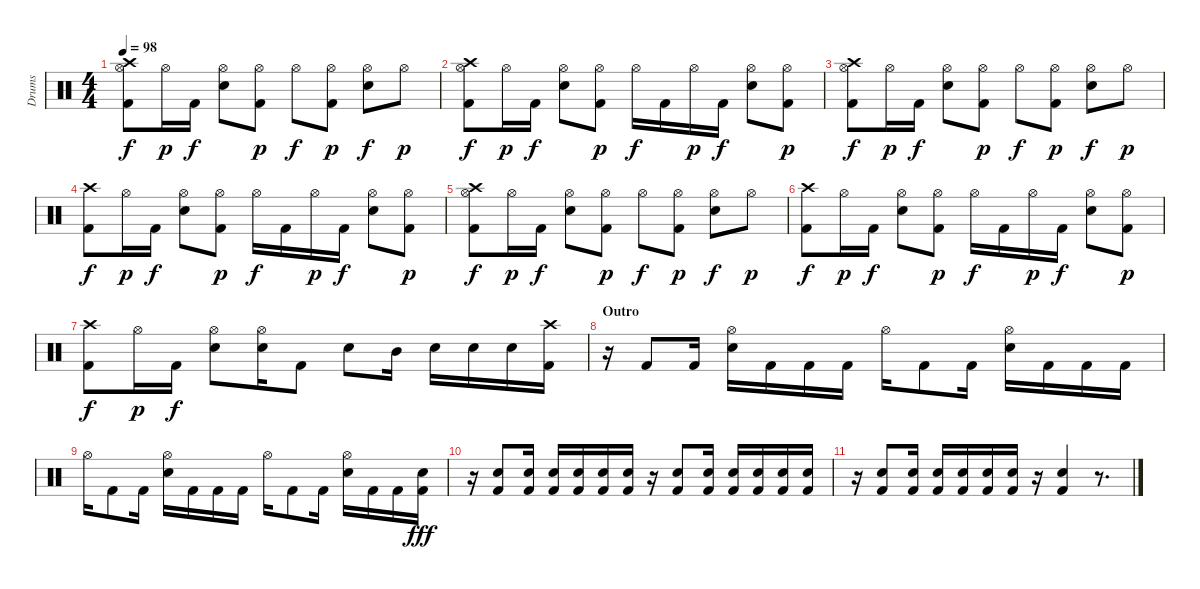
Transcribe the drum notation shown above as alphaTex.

\track ("Drums" "Drums") {instrument percussion}
\staff {score}
\articulation defaults
\ts (4 4)
\tempo 98
\clef neutral
\ks c
("Crash high (hit)" "Hi-Hat (open)" "Kick (hit) 2").8{dy f} "Hi-Hat (open)".16{dy p} "Kick (hit) 2".16{dy f} ("Hi-Hat (open)" "Electric Snare (hit)").8 ("Hi-Hat (open)" "Kick (hit) 2").8{dy p} "Hi-Hat (open)".8{dy f} ("Hi-Hat (open)" "Kick (hit) 2").8{dy p} ("Hi-Hat (open)" "Electric Snare (hit)").8{dy f} "Hi-Hat (open)".8{dy p} |
("Crash high (hit)" "Hi-Hat (open)" "Kick (hit) 2").8{dy f} "Hi-Hat (open)".16{dy p} "Kick (hit) 2".16{dy f} ("Hi-Hat (open)" "Electric Snare (hit)").8 ("Hi-Hat (open)" "Kick (hit) 2").8{dy p} "Hi-Hat (open)".16{dy f} "Kick (hit) 2".16 "Hi-Hat (open)".16{dy p} "Kick (hit) 2".16{dy f} ("Hi-Hat (open)" "Electric Snare (hit)").8 ("Hi-Hat (open)" "Kick (hit) 2").8{dy p} |
("Crash high (hit)" "Hi-Hat (open)" "Kick (hit) 2").8{dy f} "Hi-Hat (open)".16{dy p} "Kick (hit) 2".16{dy f} ("Hi-Hat (open)" "Electric Snare (hit)").8 ("Hi-Hat (open)" "Kick (hit) 2").8{dy p} "Hi-Hat (open)".8{dy f} ("Hi-Hat (open)" "Kick (hit) 2").8{dy p} ("Hi-Hat (open)" "Electric Snare (hit)").8{dy f} "Hi-Hat (open)".8{dy p} |
("Crash high (hit)" "Kick (hit) 2").8{dy f} "Hi-Hat (open)".16{dy p} "Kick (hit) 2".16{dy f} ("Hi-Hat (open)" "Electric Snare (hit)").8 ("Hi-Hat (open)" "Kick (hit) 2").8{dy p} "Hi-Hat (open)".16{dy f} "Kick (hit) 2".16 "Hi-Hat (open)".16{dy p} "Kick (hit) 2".16{dy f} ("Hi-Hat (open)" "Electric Snare (hit)").8 ("Hi-Hat (open)" "Kick (hit) 2").8{dy p} |
("Crash high (hit)" "Hi-Hat (open)" "Kick (hit) 2").8{dy f} "Hi-Hat (open)".16{dy p} "Kick (hit) 2".16{dy f} ("Hi-Hat (open)" "Electric Snare (hit)").8 ("Hi-Hat (open)" "Kick (hit) 2").8{dy p} "Hi-Hat (open)".8{dy f} ("Hi-Hat (open)" "Kick (hit) 2").8{dy p} ("Hi-Hat (open)" "Electric Snare (hit)").8{dy f} "Hi-Hat (open)".8{dy p} |
("Crash high (hit)" "Kick (hit) 2").8{dy f} "Hi-Hat (open)".16{dy p} "Kick (hit) 2".16{dy f} ("Hi-Hat (open)" "Electric Snare (hit)").8 ("Hi-Hat (open)" "Kick (hit) 2").8{dy p} "Hi-Hat (open)".16{dy f} "Kick (hit) 2".16 "Hi-Hat (open)".16{dy p} "Kick (hit) 2".16{dy f} ("Hi-Hat (open)" "Electric Snare (hit)").8 ("Hi-Hat (open)" "Kick (hit) 2").8{dy p} |
("Crash high (hit)" "Kick (hit) 2").8{dy f} "Hi-Hat (open)".16{dy p} "Kick (hit) 2".16{dy f} ("Hi-Hat (open)" "Electric Snare (hit)").8 ("Hi-Hat (open)" "Electric Snare (hit)").16 "Kick (hit) 2".8 "Electric Snare (hit)".8 "Mid Tom (hit)".16 "Electric Snare (hit)".16 "Electric Snare (hit)".16 "Electric Snare (hit)".16 ("Crash high (hit)" "Kick (hit) 2").16 |
\section ("" "Outro")
r.16 "Kick (hit) 2".8 "Kick (hit) 2".16 ("Hi-Hat (open)" "Electric Snare (hit)").16 "Kick (hit) 2".16 "Kick (hit) 2".16 "Kick (hit) 2".16 "Hi-Hat (open)".16 "Kick (hit) 2".8 "Kick (hit) 2".16 ("Hi-Hat (open)" "Electric Snare (hit)").16 "Kick (hit) 2".16 "Kick (hit) 2".16 "Kick (hit) 2".16 |
"Hi-Hat (open)".16 "Kick (hit) 2".8 "Kick (hit) 2".16 ("Hi-Hat (open)" "Electric Snare (hit)").16 "Kick (hit) 2".16 "Kick (hit) 2".16 "Kick (hit) 2".16 "Hi-Hat (open)".16 "Kick (hit) 2".8 "Kick (hit) 2".16 ("Hi-Hat (open)" "Electric Snare (hit)").16 "Kick (hit) 2".16 "Kick (hit) 2".16 ("Electric Snare (hit)" "Kick (hit) 2").16{dy fff} |
r.16 ("Electric Snare (hit)" "Kick (hit) 2").8 ("Electric Snare (hit)" "Kick (hit) 2").16 ("Electric Snare (hit)" "Kick (hit) 2").16 ("Electric Snare (hit)" "Kick (hit) 2").16 ("Electric Snare (hit)" "Kick (hit) 2").16 ("Electric Snare (hit)" "Kick (hit) 2").16 r.16 ("Electric Snare (hit)" "Kick (hit) 2").8 ("Electric Snare (hit)" "Kick (hit) 2").16 ("Electric Snare (hit)" "Kick (hit) 2").16 ("Electric Snare (hit)" "Kick (hit) 2").16 ("Electric Snare (hit)" "Kick (hit) 2").16 ("Electric Snare (hit)" "Kick (hit) 2").16 |
r.16 ("Electric Snare (hit)" "Kick (hit) 2").8 ("Electric Snare (hit)" "Kick (hit) 2").16 ("Electric Snare (hit)" "Kick (hit) 2").16 ("Electric Snare (hit)" "Kick (hit) 2").16 ("Electric Snare (hit)" "Kick (hit) 2").16 ("Electric Snare (hit)" "Kick (hit) 2").16 r.16 ("Electric Snare (hit)" "Kick (hit) 2").4 r.8{d}
